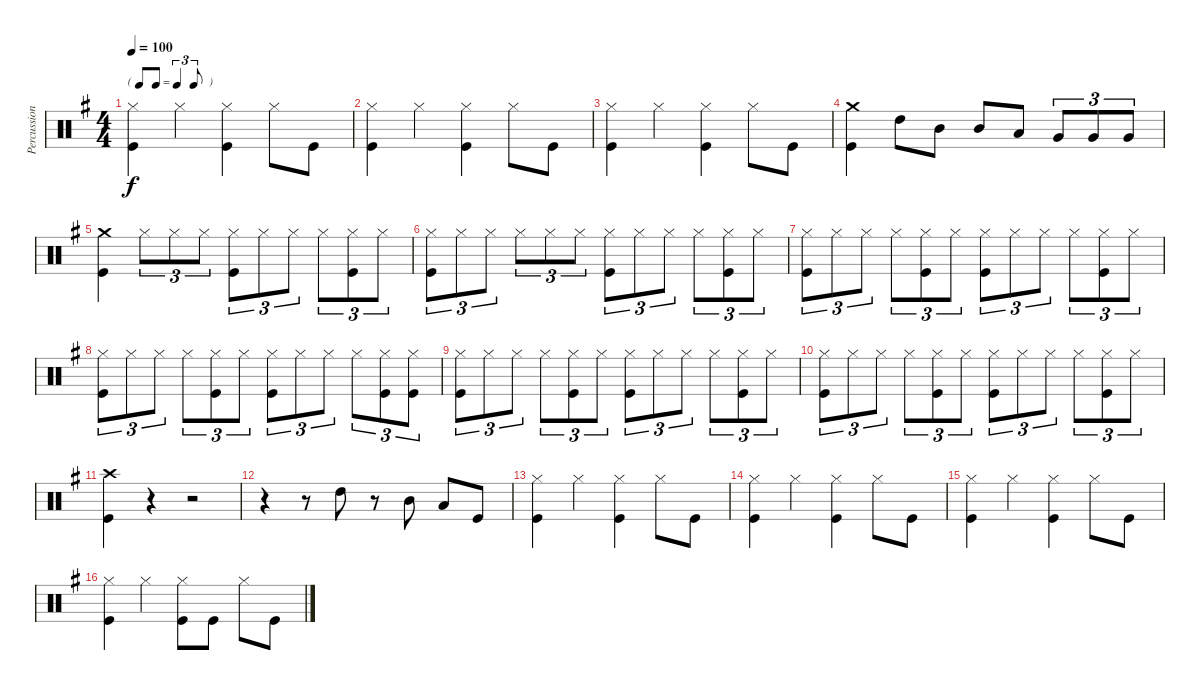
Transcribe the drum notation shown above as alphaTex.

\track ("Percussion" "Percussion") {instrument percussion}
\staff {score}
\articulation defaults
\ts (4 4)
\tf triplet8th
\tempo 100
\clef neutral
\ks g
("Hi-Hat (closed)" "Kick (hit)").4{dy f} "Hi-Hat (closed)".4 ("Hi-Hat (closed)" "Kick (hit)").4 "Hi-Hat (closed)".8 "Kick (hit)".8 |
("Hi-Hat (closed)" "Kick (hit)").4 "Hi-Hat (closed)".4 ("Hi-Hat (closed)" "Kick (hit)").4 "Hi-Hat (closed)".8 "Kick (hit)".8 |
("Hi-Hat (closed)" "Kick (hit)").4 "Hi-Hat (closed)".4 ("Hi-Hat (closed)" "Kick (hit)").4 "Hi-Hat (closed)".8 "Kick (hit)".8 |
("Crash medium (hit)" "Kick (hit)").4 "High Tom (hit)".8 "Mid Tom (hit)".8 "Mid Tom (hit)".8 "Low Tom (hit)".8 "Very Low Tom (hit)".8{tu (3 2)} "Very Low Tom (hit)".8{tu (3 2)} "Very Low Tom (hit)".8{tu (3 2)} |
("Crash medium (hit)" "Kick (hit)").4 "Hi-Hat (closed)".8{tu (3 2)} "Hi-Hat (closed)".8{tu (3 2)} "Hi-Hat (closed)".8{tu (3 2)} ("Hi-Hat (closed)" "Kick (hit)").8{tu (3 2)} "Hi-Hat (closed)".8{tu (3 2)} "Hi-Hat (closed)".8{tu (3 2)} "Hi-Hat (closed)".8{tu (3 2)} ("Hi-Hat (closed)" "Kick (hit)").8{tu (3 2)} "Hi-Hat (closed)".8{tu (3 2)} |
("Hi-Hat (closed)" "Kick (hit)").8{tu (3 2)} "Hi-Hat (closed)".8{tu (3 2)} "Hi-Hat (closed)".8{tu (3 2)} "Hi-Hat (closed)".8{tu (3 2)} "Hi-Hat (closed)".8{tu (3 2)} "Hi-Hat (closed)".8{tu (3 2)} ("Hi-Hat (closed)" "Kick (hit)").8{tu (3 2)} "Hi-Hat (closed)".8{tu (3 2)} "Hi-Hat (closed)".8{tu (3 2)} "Hi-Hat (closed)".8{tu (3 2)} ("Hi-Hat (closed)" "Kick (hit)").8{tu (3 2)} "Hi-Hat (closed)".8{tu (3 2)} |
("Hi-Hat (closed)" "Kick (hit)").8{tu (3 2)} "Hi-Hat (closed)".8{tu (3 2)} "Hi-Hat (closed)".8{tu (3 2)} "Hi-Hat (closed)".8{tu (3 2)} ("Hi-Hat (closed)" "Kick (hit)").8{tu (3 2)} "Hi-Hat (closed)".8{tu (3 2)} ("Hi-Hat (closed)" "Kick (hit)").8{tu (3 2)} "Hi-Hat (closed)".8{tu (3 2)} "Hi-Hat (closed)".8{tu (3 2)} "Hi-Hat (closed)".8{tu (3 2)} ("Hi-Hat (closed)" "Kick (hit)").8{tu (3 2)} "Hi-Hat (closed)".8{tu (3 2)} |
("Hi-Hat (closed)" "Kick (hit)").8{tu (3 2)} "Hi-Hat (closed)".8{tu (3 2)} "Hi-Hat (closed)".8{tu (3 2)} "Hi-Hat (closed)".8{tu (3 2)} ("Hi-Hat (closed)" "Kick (hit)").8{tu (3 2)} "Hi-Hat (closed)".8{tu (3 2)} ("Hi-Hat (closed)" "Kick (hit)").8{tu (3 2)} "Hi-Hat (closed)".8{tu (3 2)} "Hi-Hat (closed)".8{tu (3 2)} "Hi-Hat (closed)".8{tu (3 2)} ("Hi-Hat (closed)" "Kick (hit)").8{tu (3 2)} ("Hi-Hat (closed)" "Kick (hit)").8{tu (3 2)} |
("Hi-Hat (closed)" "Kick (hit)").8{tu (3 2)} "Hi-Hat (closed)".8{tu (3 2)} "Hi-Hat (closed)".8{tu (3 2)} "Hi-Hat (closed)".8{tu (3 2)} ("Hi-Hat (closed)" "Kick (hit)").8{tu (3 2)} "Hi-Hat (closed)".8{tu (3 2)} ("Hi-Hat (closed)" "Kick (hit)").8{tu (3 2)} "Hi-Hat (closed)".8{tu (3 2)} "Hi-Hat (closed)".8{tu (3 2)} "Hi-Hat (closed)".8{tu (3 2)} ("Hi-Hat (closed)" "Kick (hit)").8{tu (3 2)} "Hi-Hat (closed)".8{tu (3 2)} |
("Hi-Hat (closed)" "Kick (hit)").8{tu (3 2)} "Hi-Hat (closed)".8{tu (3 2)} "Hi-Hat (closed)".8{tu (3 2)} "Hi-Hat (closed)".8{tu (3 2)} ("Hi-Hat (closed)" "Kick (hit)").8{tu (3 2)} "Hi-Hat (closed)".8{tu (3 2)} ("Hi-Hat (closed)" "Kick (hit)").8{tu (3 2)} "Hi-Hat (closed)".8{tu (3 2)} "Hi-Hat (closed)".8{tu (3 2)} "Hi-Hat (closed)".8{tu (3 2)} ("Hi-Hat (closed)" "Kick (hit)").8{tu (3 2)} "Hi-Hat (closed)".8{tu (3 2)} |
("Crash high (hit)" "Kick (hit)").4 r.4 r.2 |
r.4 r.8 "High Tom (hit)".8 r.8 "Mid Tom (hit)".8 "Low Tom (hit)".8 "Kick (hit)".8 |
("Hi-Hat (closed)" "Kick (hit)").4 "Hi-Hat (closed)".4 ("Hi-Hat (closed)" "Kick (hit)").4 "Hi-Hat (closed)".8 "Kick (hit)".8 |
("Hi-Hat (closed)" "Kick (hit)").4 "Hi-Hat (closed)".4 ("Hi-Hat (closed)" "Kick (hit)").4 "Hi-Hat (closed)".8 "Kick (hit)".8 |
("Hi-Hat (closed)" "Kick (hit)").4 "Hi-Hat (closed)".4 ("Hi-Hat (closed)" "Kick (hit)").4 "Hi-Hat (closed)".8 "Kick (hit)".8 |
("Hi-Hat (closed)" "Kick (hit)").4 "Hi-Hat (closed)".4 ("Hi-Hat (closed)" "Kick (hit)").8 "Kick (hit)".8 "Hi-Hat (closed)".8 "Kick (hit)".8
